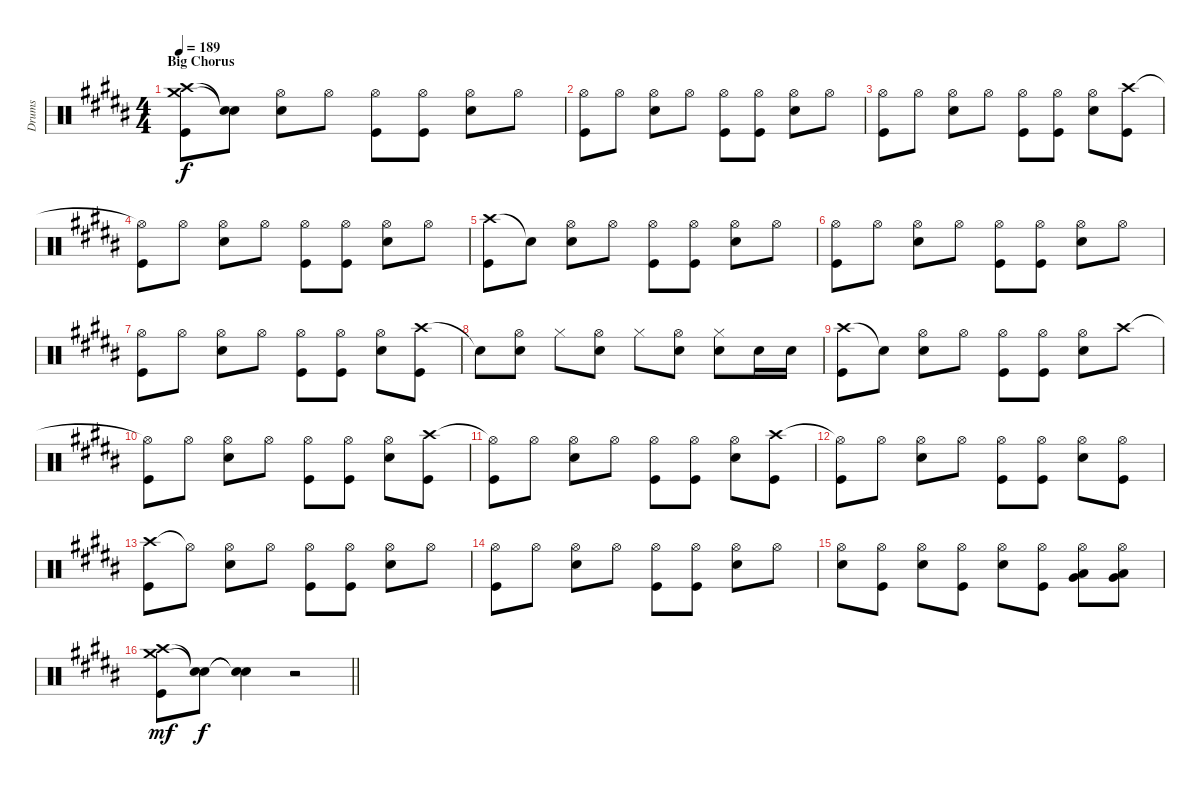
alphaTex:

\track ("Drums" "Drums") {instrument percussion}
\staff {score}
\articulation defaults
\ts (4 4)
\section ("" "Big Chorus")
\tempo 189
\clef neutral
\ks b
("Crash high (hit)" "Crash medium (hit)" "Kick (hit)").8{dy f} ("Snare (hit)"{t} "Snare (hit)"{t}).8 ("Hi-Hat (open)" "Snare (hit) 2").8 "Hi-Hat (open)".8 ("Hi-Hat (open)" "Kick (hit)").8 ("Hi-Hat (open)" "Kick (hit)").8 ("Hi-Hat (open)" "Snare (hit) 2").8 "Hi-Hat (open)".8 |
("Hi-Hat (open)" "Kick (hit)").8 "Hi-Hat (open)".8 ("Hi-Hat (open)" "Snare (hit) 2").8 "Hi-Hat (open)".8 ("Hi-Hat (open)" "Kick (hit)").8 ("Hi-Hat (open)" "Kick (hit)").8 ("Hi-Hat (open)" "Snare (hit) 2").8 "Hi-Hat (open)".8 |
("Hi-Hat (open)" "Kick (hit)").8 "Hi-Hat (open)".8 ("Hi-Hat (open)" "Snare (hit) 2").8 "Hi-Hat (open)".8 ("Hi-Hat (open)" "Kick (hit)").8 ("Hi-Hat (open)" "Kick (hit)").8 ("Hi-Hat (open)" "Snare (hit) 2").8 ("Crash high (hit)" "Kick (hit)").8 |
("Hi-Hat (open)"{t} "Kick (hit)").8 "Hi-Hat (open)".8 ("Hi-Hat (open)" "Snare (hit) 2").8 "Hi-Hat (open)".8 ("Hi-Hat (open)" "Kick (hit)").8 ("Hi-Hat (open)" "Kick (hit)").8 ("Hi-Hat (open)" "Snare (hit) 2").8 "Hi-Hat (open)".8 |
("Crash high (hit)" "Kick (hit)").8 "Snare (hit)"{t}.8 ("Hi-Hat (open)" "Snare (hit) 2").8 "Hi-Hat (open)".8 ("Hi-Hat (open)" "Kick (hit)").8 ("Hi-Hat (open)" "Kick (hit)").8 ("Hi-Hat (open)" "Snare (hit) 2").8 "Hi-Hat (open)".8 |
("Hi-Hat (open)" "Kick (hit)").8 "Hi-Hat (open)".8 ("Hi-Hat (open)" "Snare (hit) 2").8 "Hi-Hat (open)".8 ("Hi-Hat (open)" "Kick (hit)").8 ("Hi-Hat (open)" "Kick (hit)").8 ("Hi-Hat (open)" "Snare (hit) 2").8 "Hi-Hat (open)".8 |
("Hi-Hat (open)" "Kick (hit)").8 "Hi-Hat (open)".8 ("Hi-Hat (open)" "Snare (hit) 2").8 "Hi-Hat (open)".8 ("Hi-Hat (open)" "Kick (hit)").8 ("Hi-Hat (open)" "Kick (hit)").8 ("Hi-Hat (open)" "Snare (hit) 2").8 ("Crash high (hit)" "Kick (hit)").8 |
"Snare (hit)"{t}.8 ("Hi-Hat (open)" "Snare (hit) 2").8 "Hi-Hat (closed)".8 ("Hi-Hat (open)" "Snare (hit) 2").8 "Hi-Hat (closed)".8 ("Hi-Hat (open)" "Snare (hit) 2").8 ("Hi-Hat (closed)" "Snare (hit) 2").8 "Snare (hit) 2".16 "Snare (hit) 2".16 |
("Crash high (hit)" "Kick (hit)").8 "Snare (hit)"{t}.8 ("Hi-Hat (open)" "Snare (hit) 2").8 "Hi-Hat (open)".8 ("Hi-Hat (open)" "Kick (hit)").8 ("Hi-Hat (open)" "Kick (hit)").8 ("Hi-Hat (open)" "Snare (hit) 2").8 "Crash high (hit)".8 |
("Hi-Hat (open)"{t} "Kick (hit)").8 "Hi-Hat (open)".8 ("Hi-Hat (open)" "Snare (hit) 2").8 "Hi-Hat (open)".8 ("Hi-Hat (open)" "Kick (hit)").8 ("Hi-Hat (open)" "Kick (hit)").8 ("Hi-Hat (open)" "Snare (hit) 2").8 ("Crash high (hit)" "Kick (hit)").8 |
("Hi-Hat (open)"{t} "Kick (hit)").8 "Hi-Hat (open)".8 ("Hi-Hat (open)" "Snare (hit) 2").8 "Hi-Hat (open)".8 ("Hi-Hat (open)" "Kick (hit)").8 ("Hi-Hat (open)" "Kick (hit)").8 ("Hi-Hat (open)" "Snare (hit) 2").8 ("Crash high (hit)" "Kick (hit)").8 |
("Hi-Hat (open)"{t} "Kick (hit)").8 "Hi-Hat (open)".8 ("Hi-Hat (open)" "Snare (hit) 2").8 "Hi-Hat (open)".8 ("Hi-Hat (open)" "Kick (hit)").8 ("Hi-Hat (open)" "Kick (hit)").8 ("Hi-Hat (open)" "Snare (hit) 2").8 ("Hi-Hat (open)" "Kick (hit)").8 |
("Crash high (hit)" "Kick (hit)").8 "Hi-Hat (open)"{t}.8 ("Hi-Hat (open)" "Snare (hit) 2").8 "Hi-Hat (open)".8 ("Hi-Hat (open)" "Kick (hit)").8 ("Hi-Hat (open)" "Kick (hit)").8 ("Hi-Hat (open)" "Snare (hit) 2").8 "Hi-Hat (open)".8 |
("Hi-Hat (open)" "Kick (hit)").8 "Hi-Hat (open)".8 ("Hi-Hat (open)" "Snare (hit) 2").8 "Hi-Hat (open)".8 ("Hi-Hat (open)" "Kick (hit)").8 ("Hi-Hat (open)" "Kick (hit)").8 ("Hi-Hat (open)" "Snare (hit) 2").8 "Hi-Hat (open)".8 |
("Hi-Hat (open)" "Snare (hit) 2").8 ("Hi-Hat (open)" "Kick (hit)").8 ("Hi-Hat (open)" "Snare (hit) 2").8 ("Hi-Hat (open)" "Kick (hit)").8 ("Hi-Hat (open)" "Snare (hit) 2").8 ("Hi-Hat (open)" "Kick (hit)").8 ("Hi-Hat (open)" "Low Tom (hit)" "Very Low Tom (hit)").8 ("Hi-Hat (open)" "Low Tom (hit)" "Very Low Tom (hit)").8 |
\barLineRight lightlight
("Crash high (hit)" "Crash medium (hit)" "Kick (hit)").8{dy mf} ("Snare (hit)"{t} "Snare (hit)"{t}).8{dy f} ("Snare (hit)"{t} "Snare (hit)"{t}).4 r.2
